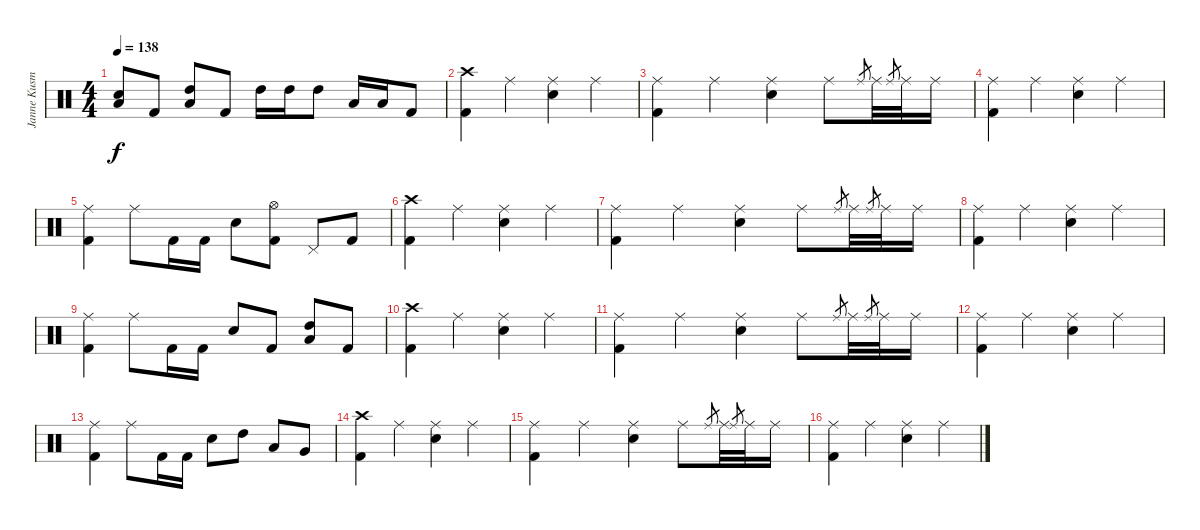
\track ("Janne Kusmin" "Janne Kusm") {instrument percussion}
\staff {score}
\articulation defaults
\ts (4 4)
\tempo 138
\clef neutral
\ks c
("Low Floor Tom (hit)" "Electric Snare (hit)").8{dy f} "Kick (hit) 2".8 ("High Tom (hit)" "Low Floor Tom (hit)").8 "Kick (hit) 2".8 "High Tom (hit)".16 "High Tom (hit)".16 "High Tom (hit)".8 "Low Tom (hit)".16 "Low Tom (hit)".16 "Kick (hit) 2".8 |
("Crash high (hit)" "Kick (hit) 2").4 "Ride (middle)".4 ("Ride (middle)" "Electric Snare (hit)").4 "Ride (middle)".4 |
("Ride (middle)" "Kick (hit) 2").4 "Ride (middle)".4 ("Ride (middle)" "Electric Snare (hit)").4 "Ride (middle)".8 "Ride (middle)".8{gr} "Ride (middle)".32 "Ride (middle)".8{gr} "Ride (middle)".32 "Ride (middle)".16 |
("Ride (middle)" "Kick (hit) 2").4 "Ride (middle)".4 ("Ride (middle)" "Electric Snare (hit)").4 "Ride (middle)".4 |
("Ride (middle)" "Kick (hit) 2").4 "Ride (middle)".8 "Kick (hit) 2".16 "Kick (hit) 2".16 "Electric Snare (hit)".8 ("Hi-Hat (open)" "Kick (hit) 2").8 "Pedal Hi-Hat (hit)".8 "Kick (hit) 2".8 |
("Crash high (hit)" "Kick (hit) 2").4 "Ride (middle)".4 ("Ride (middle)" "Electric Snare (hit)").4 "Ride (middle)".4 |
("Ride (middle)" "Kick (hit) 2").4 "Ride (middle)".4 ("Ride (middle)" "Electric Snare (hit)").4 "Ride (middle)".8 "Ride (middle)".8{gr} "Ride (middle)".32 "Ride (middle)".8{gr} "Ride (middle)".32 "Ride (middle)".16 |
("Ride (middle)" "Kick (hit) 2").4 "Ride (middle)".4 ("Ride (middle)" "Electric Snare (hit)").4 "Ride (middle)".4 |
("Ride (middle)" "Kick (hit) 2").4 "Ride (middle)".8 "Kick (hit) 2".16 "Kick (hit) 2".16 "Electric Snare (hit)".8 "Kick (hit) 2".8 ("High Tom (hit)" "Low Floor Tom (hit)").8 "Kick (hit) 2".8 |
("Crash high (hit)" "Kick (hit) 2").4 "Ride (middle)".4 ("Ride (middle)" "Electric Snare (hit)").4 "Ride (middle)".4 |
("Ride (middle)" "Kick (hit) 2").4 "Ride (middle)".4 ("Ride (middle)" "Electric Snare (hit)").4 "Ride (middle)".8 "Ride (middle)".8{gr} "Ride (middle)".32 "Ride (middle)".8{gr} "Ride (middle)".32 "Ride (middle)".16 |
("Ride (middle)" "Kick (hit) 2").4 "Ride (middle)".4 ("Ride (middle)" "Electric Snare (hit)").4 "Ride (middle)".4 |
("Ride (middle)" "Kick (hit) 2").4 "Ride (middle)".8 "Kick (hit) 2".16 "Kick (hit) 2".16 "Electric Snare (hit)".8 "High Tom (hit)".8 "Low Tom (hit)".8 "Very Low Tom (hit)".8 |
("Crash high (hit)" "Kick (hit) 2").4 "Ride (middle)".4 ("Ride (middle)" "Electric Snare (hit)").4 "Ride (middle)".4 |
("Ride (middle)" "Kick (hit) 2").4 "Ride (middle)".4 ("Ride (middle)" "Electric Snare (hit)").4 "Ride (middle)".8 "Ride (middle)".8{gr} "Ride (middle)".32 "Ride (middle)".8{gr} "Ride (middle)".32 "Ride (middle)".16 |
("Ride (middle)" "Kick (hit) 2").4 "Ride (middle)".4 ("Ride (middle)" "Electric Snare (hit)").4 "Ride (middle)".4
